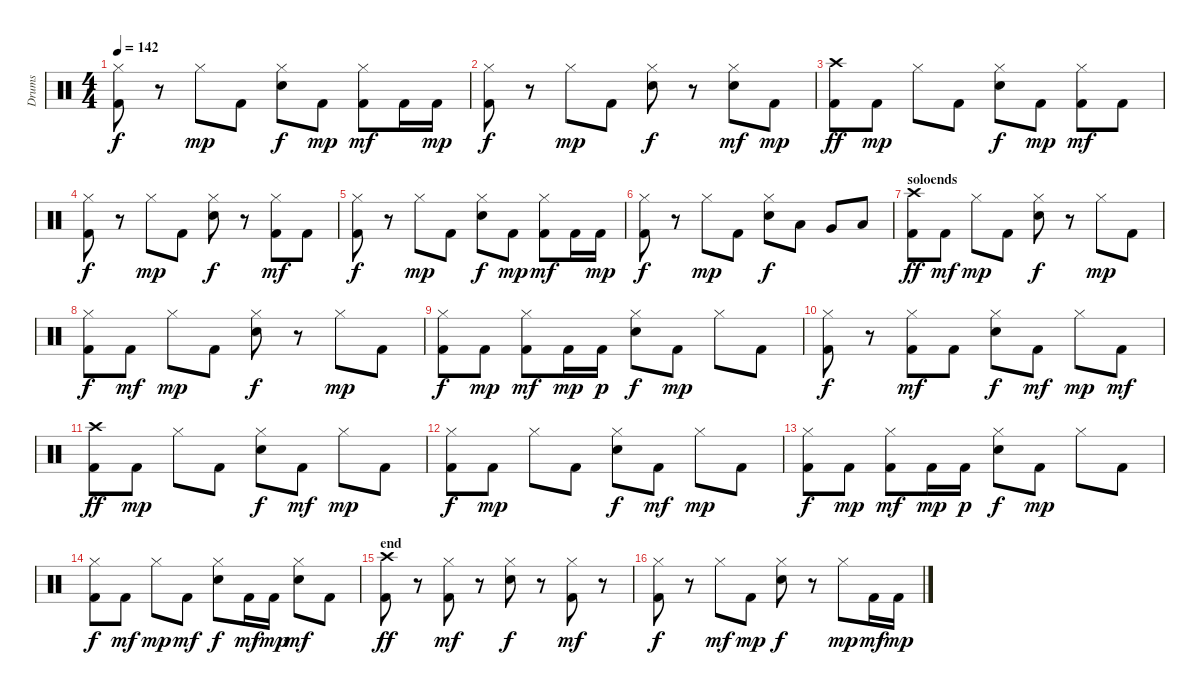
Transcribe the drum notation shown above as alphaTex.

\track ("Drums" "Drums") {instrument percussion}
\staff {score}
\articulation defaults
\ts (4 4)
\tempo 142
\clef neutral
\ks c
("Hi-Hat (closed)" "Kick (hit) 2").8{dy f} r.8 "Hi-Hat (closed)".8{dy mp} "Kick (hit) 2".8 ("Hi-Hat (closed)" "Snare (hit) 2").8{dy f} "Kick (hit) 2".8{dy mp} ("Hi-Hat (closed)" "Kick (hit) 2").8{dy mf} "Kick (hit) 2".16 "Kick (hit) 2".16{dy mp} |
("Hi-Hat (closed)" "Kick (hit) 2").8{dy f} r.8 "Hi-Hat (closed)".8{dy mp} "Kick (hit) 2".8 ("Hi-Hat (closed)" "Snare (hit) 2").8{dy f} r.8 ("Hi-Hat (closed)" "Snare (hit) 2").8{dy mf} "Kick (hit) 2".8{dy mp} |
("Crash high (hit)" "Kick (hit) 2").8{dy ff} "Kick (hit) 2".8{dy mp} "Hi-Hat (closed)".8 "Kick (hit) 2".8 ("Hi-Hat (closed)" "Snare (hit) 2").8{dy f} "Kick (hit) 2".8{dy mp} ("Hi-Hat (closed)" "Kick (hit) 2").8{dy mf} "Kick (hit) 2".8 |
("Hi-Hat (closed)" "Kick (hit) 2").8{dy f} r.8 "Hi-Hat (closed)".8{dy mp} "Kick (hit) 2".8 ("Hi-Hat (closed)" "Snare (hit) 2").8{dy f} r.8 ("Hi-Hat (closed)" "Kick (hit) 2").8{dy mf} "Kick (hit) 2".8 |
("Hi-Hat (closed)" "Kick (hit) 2").8{dy f} r.8 "Hi-Hat (closed)".8{dy mp} "Kick (hit) 2".8 ("Hi-Hat (closed)" "Snare (hit) 2").8{dy f} "Kick (hit) 2".8{dy mp} ("Hi-Hat (closed)" "Kick (hit) 2").8{dy mf} "Kick (hit) 2".16 "Kick (hit) 2".16{dy mp} |
("Hi-Hat (closed)" "Kick (hit) 2").8{dy f} r.8 "Hi-Hat (closed)".8{dy mp} "Kick (hit) 2".8 ("Hi-Hat (closed)" "Snare (hit) 2").8{dy f} "Low Tom (hit)".8 "Very Low Tom (hit)".8 "Low Floor Tom (hit)".8 |
\section ("" "soloends")
("Crash high (hit)" "Kick (hit) 2").8{dy ff} "Kick (hit) 2".8{dy mf} "Hi-Hat (closed)".8{dy mp} "Kick (hit) 2".8 ("Hi-Hat (closed)" "Snare (hit) 2").8{dy f} r.8 "Hi-Hat (closed)".8{dy mp} "Kick (hit) 2".8 |
("Hi-Hat (closed)" "Kick (hit) 2").8{dy f} "Kick (hit) 2".8{dy mf} "Hi-Hat (closed)".8{dy mp} "Kick (hit) 2".8 ("Hi-Hat (closed)" "Snare (hit) 2").8{dy f} r.8 "Hi-Hat (closed)".8{dy mp} "Kick (hit) 2".8 |
("Hi-Hat (closed)" "Kick (hit) 2").8{dy f} "Kick (hit) 2".8{dy mp} ("Hi-Hat (closed)" "Kick (hit) 2").8{dy mf} "Kick (hit) 2".16{dy mp} "Kick (hit) 2".16{dy p} ("Hi-Hat (closed)" "Snare (hit) 2").8{dy f} "Kick (hit) 2".8{dy mp} "Hi-Hat (closed)".8 "Kick (hit) 2".8 |
("Hi-Hat (closed)" "Kick (hit) 2").8{dy f} r.8 ("Hi-Hat (closed)" "Kick (hit) 2").8{dy mf} "Kick (hit) 2".8 ("Hi-Hat (closed)" "Snare (hit) 2").8{dy f} "Kick (hit) 2".8{dy mf} "Hi-Hat (closed)".8{dy mp} "Kick (hit) 2".8{dy mf} |
("Crash high (hit)" "Kick (hit) 2").8{dy ff} "Kick (hit) 2".8{dy mp} "Hi-Hat (closed)".8 "Kick (hit) 2".8 ("Hi-Hat (closed)" "Snare (hit) 2").8{dy f} "Kick (hit) 2".8{dy mf} "Hi-Hat (closed)".8{dy mp} "Kick (hit) 2".8 |
("Hi-Hat (closed)" "Kick (hit) 2").8{dy f} "Kick (hit) 2".8{dy mp} "Hi-Hat (closed)".8 "Kick (hit) 2".8 ("Hi-Hat (closed)" "Snare (hit) 2").8{dy f} "Kick (hit) 2".8{dy mf} "Hi-Hat (closed)".8{dy mp} "Kick (hit) 2".8 |
("Hi-Hat (closed)" "Kick (hit) 2").8{dy f} "Kick (hit) 2".8{dy mp} ("Hi-Hat (closed)" "Kick (hit) 2").8{dy mf} "Kick (hit) 2".16{dy mp} "Kick (hit) 2".16{dy p} ("Hi-Hat (closed)" "Snare (hit) 2").8{dy f} "Kick (hit) 2".8{dy mp} "Hi-Hat (closed)".8 "Kick (hit) 2".8 |
("Hi-Hat (closed)" "Kick (hit) 2").8{dy f} "Kick (hit) 2".8{dy mf} "Hi-Hat (closed)".8{dy mp} "Kick (hit) 2".8{dy mf} ("Hi-Hat (closed)" "Snare (hit) 2").8{dy f} "Kick (hit) 2".16{dy mf} "Kick (hit) 2".16{dy mp} ("Hi-Hat (closed)" "Snare (hit) 2").8{dy mf} "Kick (hit) 2".8 |
\section ("" "end")
("Crash high (hit)" "Kick (hit) 2").8{dy ff} r.8 ("Hi-Hat (closed)" "Kick (hit) 2").8{dy mf} r.8 ("Hi-Hat (closed)" "Snare (hit) 2").8{dy f} r.8 ("Hi-Hat (closed)" "Kick (hit) 2").8{dy mf} r.8 |
("Hi-Hat (closed)" "Kick (hit) 2").8{dy f} r.8 "Hi-Hat (closed)".8{dy mf} "Kick (hit) 2".8{dy mp} ("Hi-Hat (closed)" "Snare (hit) 2").8{dy f} r.8 "Hi-Hat (closed)".8{dy mp} "Kick (hit) 2".16{dy mf} "Kick (hit) 2".16{dy mp}
